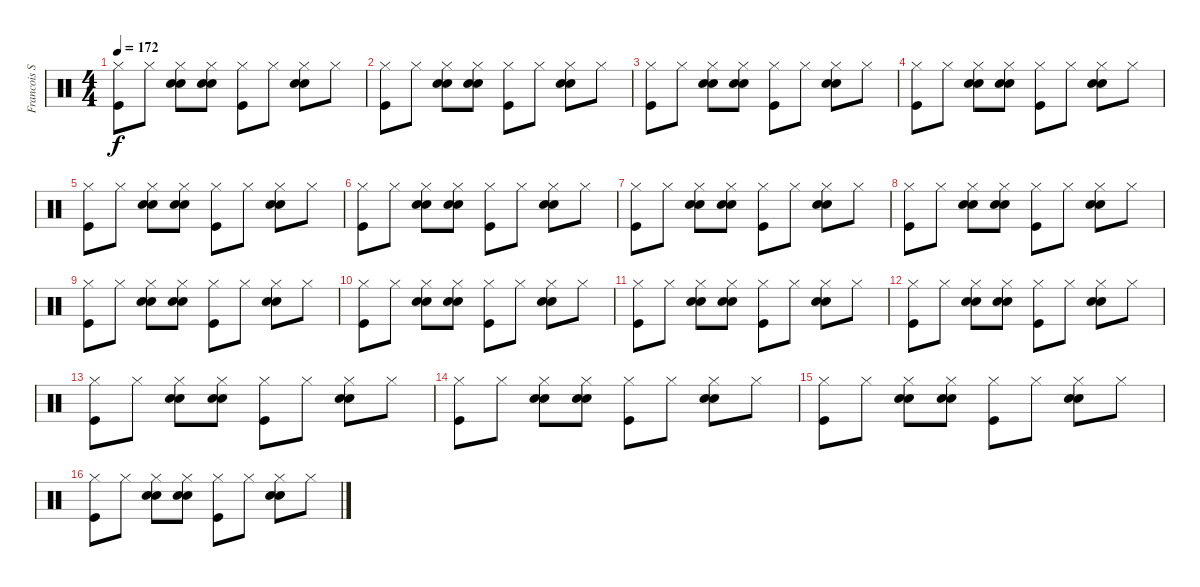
\track ("Francois Soulier" "Francois S") {instrument percussion}
\staff {score}
\articulation defaults
\ts (4 4)
\tempo 172
\clef neutral
\ks c
("Hi-Hat (closed)" "Kick (hit)").8{dy f} "Hi-Hat (closed)".8 ("Electric Snare (hit)" "Hi-Hat (closed)" "Snare (hit) 2").8 ("Electric Snare (hit)" "Hi-Hat (closed)" "Snare (hit) 2").8 ("Hi-Hat (closed)" "Kick (hit)").8 "Hi-Hat (closed)".8 ("Electric Snare (hit)" "Hi-Hat (closed)" "Snare (hit) 2").8 "Hi-Hat (closed)".8 |
("Hi-Hat (closed)" "Kick (hit)").8 "Hi-Hat (closed)".8 ("Electric Snare (hit)" "Hi-Hat (closed)" "Snare (hit) 2").8 ("Electric Snare (hit)" "Hi-Hat (closed)" "Snare (hit) 2").8 ("Hi-Hat (closed)" "Kick (hit)").8 "Hi-Hat (closed)".8 ("Electric Snare (hit)" "Hi-Hat (closed)" "Snare (hit) 2").8 "Hi-Hat (closed)".8 |
("Hi-Hat (closed)" "Kick (hit)").8 "Hi-Hat (closed)".8 ("Electric Snare (hit)" "Hi-Hat (closed)" "Snare (hit) 2").8 ("Electric Snare (hit)" "Hi-Hat (closed)" "Snare (hit) 2").8 ("Hi-Hat (closed)" "Kick (hit)").8 "Hi-Hat (closed)".8 ("Electric Snare (hit)" "Hi-Hat (closed)" "Snare (hit) 2").8 "Hi-Hat (closed)".8 |
("Hi-Hat (closed)" "Kick (hit)").8 "Hi-Hat (closed)".8 ("Electric Snare (hit)" "Hi-Hat (closed)" "Snare (hit) 2").8 ("Electric Snare (hit)" "Hi-Hat (closed)" "Snare (hit) 2").8 ("Hi-Hat (closed)" "Kick (hit)").8 "Hi-Hat (closed)".8 ("Electric Snare (hit)" "Hi-Hat (closed)" "Snare (hit) 2").8 "Hi-Hat (closed)".8 |
("Hi-Hat (closed)" "Kick (hit)").8 "Hi-Hat (closed)".8 ("Electric Snare (hit)" "Hi-Hat (closed)" "Snare (hit) 2").8 ("Electric Snare (hit)" "Hi-Hat (closed)" "Snare (hit) 2").8 ("Hi-Hat (closed)" "Kick (hit)").8 "Hi-Hat (closed)".8 ("Electric Snare (hit)" "Hi-Hat (closed)" "Snare (hit) 2").8 "Hi-Hat (closed)".8 |
("Hi-Hat (closed)" "Kick (hit)").8 "Hi-Hat (closed)".8 ("Electric Snare (hit)" "Hi-Hat (closed)" "Snare (hit) 2").8 ("Electric Snare (hit)" "Hi-Hat (closed)" "Snare (hit) 2").8 ("Hi-Hat (closed)" "Kick (hit)").8 "Hi-Hat (closed)".8 ("Electric Snare (hit)" "Hi-Hat (closed)" "Snare (hit) 2").8 "Hi-Hat (closed)".8 |
("Hi-Hat (closed)" "Kick (hit)").8 "Hi-Hat (closed)".8 ("Electric Snare (hit)" "Hi-Hat (closed)" "Snare (hit) 2").8 ("Electric Snare (hit)" "Hi-Hat (closed)" "Snare (hit) 2").8 ("Hi-Hat (closed)" "Kick (hit)").8 "Hi-Hat (closed)".8 ("Electric Snare (hit)" "Hi-Hat (closed)" "Snare (hit) 2").8 "Hi-Hat (closed)".8 |
("Hi-Hat (closed)" "Kick (hit)").8 "Hi-Hat (closed)".8 ("Electric Snare (hit)" "Hi-Hat (closed)" "Snare (hit) 2").8 ("Electric Snare (hit)" "Hi-Hat (closed)" "Snare (hit) 2").8 ("Hi-Hat (closed)" "Kick (hit)").8 "Hi-Hat (closed)".8 ("Electric Snare (hit)" "Hi-Hat (closed)" "Snare (hit) 2").8 "Hi-Hat (closed)".8 |
("Hi-Hat (closed)" "Kick (hit)").8 "Hi-Hat (closed)".8 ("Electric Snare (hit)" "Hi-Hat (closed)" "Snare (hit) 2").8 ("Electric Snare (hit)" "Hi-Hat (closed)" "Snare (hit) 2").8 ("Hi-Hat (closed)" "Kick (hit)").8 "Hi-Hat (closed)".8 ("Electric Snare (hit)" "Hi-Hat (closed)" "Snare (hit) 2").8 "Hi-Hat (closed)".8 |
("Hi-Hat (closed)" "Kick (hit)").8 "Hi-Hat (closed)".8 ("Electric Snare (hit)" "Hi-Hat (closed)" "Snare (hit) 2").8 ("Electric Snare (hit)" "Hi-Hat (closed)" "Snare (hit) 2").8 ("Hi-Hat (closed)" "Kick (hit)").8 "Hi-Hat (closed)".8 ("Electric Snare (hit)" "Hi-Hat (closed)" "Snare (hit) 2").8 "Hi-Hat (closed)".8 |
("Hi-Hat (closed)" "Kick (hit)").8 "Hi-Hat (closed)".8 ("Electric Snare (hit)" "Hi-Hat (closed)" "Snare (hit) 2").8 ("Electric Snare (hit)" "Hi-Hat (closed)" "Snare (hit) 2").8 ("Hi-Hat (closed)" "Kick (hit)").8 "Hi-Hat (closed)".8 ("Electric Snare (hit)" "Hi-Hat (closed)" "Snare (hit) 2").8 "Hi-Hat (closed)".8 |
("Hi-Hat (closed)" "Kick (hit)").8 "Hi-Hat (closed)".8 ("Electric Snare (hit)" "Hi-Hat (closed)" "Snare (hit) 2").8 ("Electric Snare (hit)" "Hi-Hat (closed)" "Snare (hit) 2").8 ("Hi-Hat (closed)" "Kick (hit)").8 "Hi-Hat (closed)".8 ("Electric Snare (hit)" "Hi-Hat (closed)" "Snare (hit) 2").8 "Hi-Hat (closed)".8 |
("Hi-Hat (closed)" "Kick (hit)").8 "Hi-Hat (closed)".8 ("Electric Snare (hit)" "Hi-Hat (closed)" "Snare (hit) 2").8 ("Electric Snare (hit)" "Hi-Hat (closed)" "Snare (hit) 2").8 ("Hi-Hat (closed)" "Kick (hit)").8 "Hi-Hat (closed)".8 ("Electric Snare (hit)" "Hi-Hat (closed)" "Snare (hit) 2").8 "Hi-Hat (closed)".8 |
("Hi-Hat (closed)" "Kick (hit)").8 "Hi-Hat (closed)".8 ("Electric Snare (hit)" "Hi-Hat (closed)" "Snare (hit) 2").8 ("Electric Snare (hit)" "Hi-Hat (closed)" "Snare (hit) 2").8 ("Hi-Hat (closed)" "Kick (hit)").8 "Hi-Hat (closed)".8 ("Electric Snare (hit)" "Hi-Hat (closed)" "Snare (hit) 2").8 "Hi-Hat (closed)".8 |
("Hi-Hat (closed)" "Kick (hit)").8 "Hi-Hat (closed)".8 ("Electric Snare (hit)" "Hi-Hat (closed)" "Snare (hit) 2").8 ("Electric Snare (hit)" "Hi-Hat (closed)" "Snare (hit) 2").8 ("Hi-Hat (closed)" "Kick (hit)").8 "Hi-Hat (closed)".8 ("Electric Snare (hit)" "Hi-Hat (closed)" "Snare (hit) 2").8 "Hi-Hat (closed)".8 |
("Hi-Hat (closed)" "Kick (hit)").8 "Hi-Hat (closed)".8 ("Electric Snare (hit)" "Hi-Hat (closed)" "Snare (hit) 2").8 ("Electric Snare (hit)" "Hi-Hat (closed)" "Snare (hit) 2").8 ("Hi-Hat (closed)" "Kick (hit)").8 "Hi-Hat (closed)".8 ("Electric Snare (hit)" "Hi-Hat (closed)" "Snare (hit) 2").8 "Hi-Hat (closed)".8
